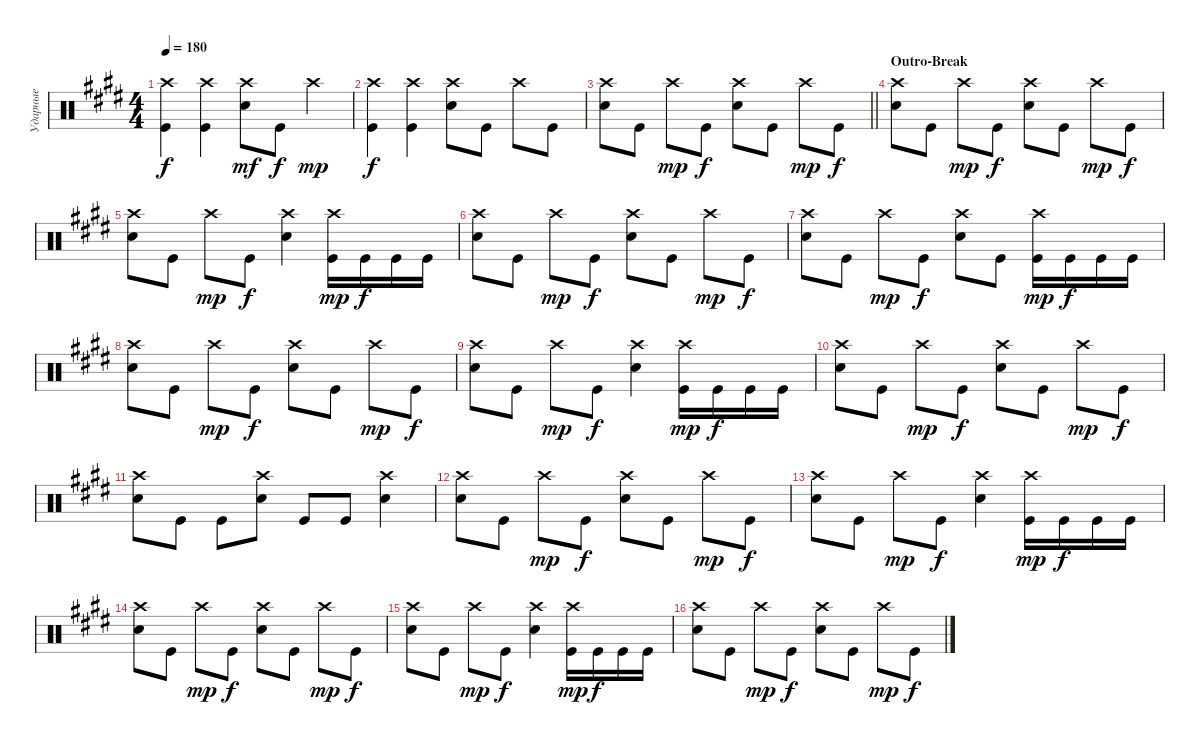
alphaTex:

\track ("Ударные" "Ударные") {instrument percussion}
\staff {score}
\articulation defaults
\ts (4 4)
\tempo 180
\clef neutral
\ks c#minor
("Kick (hit)" "Crash high (hit)").4{dy f} ("Crash high (hit)" "Kick (hit)").4 ("Snare (hit) 2" "Crash high (hit)").8{dy mf} "Kick (hit)".8{dy f} "Crash high (hit)".4{dy mp} |
("Kick (hit)" "Crash high (hit)").4{dy f} ("Kick (hit)" "Crash high (hit)").4 ("Snare (hit) 2" "Crash high (hit)").8 "Kick (hit)".8 "Crash high (hit)".8 "Kick (hit)".8 |
\barLineRight lightlight
("Snare (hit) 2" "Crash high (hit)").8 "Kick (hit)".8 "Crash high (hit)".8{dy mp} "Kick (hit)".8{dy f} ("Snare (hit) 2" "Crash high (hit)").8 "Kick (hit)".8 "Crash high (hit)".8{dy mp} "Kick (hit)".8{dy f} |
\section ("" "Outro-Break")
("Snare (hit) 2" "Crash high (hit)").8 "Kick (hit)".8 "Crash high (hit)".8{dy mp} "Kick (hit)".8{dy f} ("Snare (hit) 2" "Crash high (hit)").8 "Kick (hit)".8 "Crash high (hit)".8{dy mp} "Kick (hit)".8{dy f} |
("Snare (hit) 2" "Crash high (hit)").8 "Kick (hit)".8 "Crash high (hit)".8{dy mp} "Kick (hit)".8{dy f} ("Snare (hit) 2" "Crash high (hit)").4 ("Crash high (hit)" "Kick (hit)").16{dy mp} "Kick (hit)".16{dy f} "Kick (hit)".16 "Kick (hit)".16 |
("Snare (hit) 2" "Crash high (hit)").8 "Kick (hit)".8 "Crash high (hit)".8{dy mp} "Kick (hit)".8{dy f} ("Snare (hit) 2" "Crash high (hit)").8 "Kick (hit)".8 "Crash high (hit)".8{dy mp} "Kick (hit)".8{dy f} |
("Snare (hit) 2" "Crash high (hit)").8 "Kick (hit)".8 "Crash high (hit)".8{dy mp} "Kick (hit)".8{dy f} ("Snare (hit) 2" "Crash high (hit)").8 "Kick (hit)".8 ("Crash high (hit)" "Kick (hit)").16{dy mp} "Kick (hit)".16{dy f} "Kick (hit)".16 "Kick (hit)".16 |
("Snare (hit) 2" "Crash high (hit)").8 "Kick (hit)".8 "Crash high (hit)".8{dy mp} "Kick (hit)".8{dy f} ("Snare (hit) 2" "Crash high (hit)").8 "Kick (hit)".8 "Crash high (hit)".8{dy mp} "Kick (hit)".8{dy f} |
("Snare (hit) 2" "Crash high (hit)").8 "Kick (hit)".8 "Crash high (hit)".8{dy mp} "Kick (hit)".8{dy f} ("Snare (hit) 2" "Crash high (hit)").4 ("Crash high (hit)" "Kick (hit)").16{dy mp} "Kick (hit)".16{dy f} "Kick (hit)".16 "Kick (hit)".16 |
("Snare (hit) 2" "Crash high (hit)").8 "Kick (hit)".8 "Crash high (hit)".8{dy mp} "Kick (hit)".8{dy f} ("Snare (hit) 2" "Crash high (hit)").8 "Kick (hit)".8 "Crash high (hit)".8{dy mp} "Kick (hit)".8{dy f} |
("Snare (hit) 2" "Crash high (hit)").8 "Kick (hit)".8 "Kick (hit)".8 ("Snare (hit) 2" "Crash high (hit)").8 "Kick (hit)".8 "Kick (hit)".8 ("Snare (hit) 2" "Crash high (hit)").4 |
("Snare (hit) 2" "Crash high (hit)").8 "Kick (hit)".8 "Crash high (hit)".8{dy mp} "Kick (hit)".8{dy f} ("Snare (hit) 2" "Crash high (hit)").8 "Kick (hit)".8 "Crash high (hit)".8{dy mp} "Kick (hit)".8{dy f} |
("Snare (hit) 2" "Crash high (hit)").8 "Kick (hit)".8 "Crash high (hit)".8{dy mp} "Kick (hit)".8{dy f} ("Snare (hit) 2" "Crash high (hit)").4 ("Crash high (hit)" "Kick (hit)").16{dy mp} "Kick (hit)".16{dy f} "Kick (hit)".16 "Kick (hit)".16 |
("Snare (hit) 2" "Crash high (hit)").8 "Kick (hit)".8 "Crash high (hit)".8{dy mp} "Kick (hit)".8{dy f} ("Snare (hit) 2" "Crash high (hit)").8 "Kick (hit)".8 "Crash high (hit)".8{dy mp} "Kick (hit)".8{dy f} |
("Snare (hit) 2" "Crash high (hit)").8 "Kick (hit)".8 "Crash high (hit)".8{dy mp} "Kick (hit)".8{dy f} ("Snare (hit) 2" "Crash high (hit)").4 ("Crash high (hit)" "Kick (hit)").16{dy mp} "Kick (hit)".16{dy f} "Kick (hit)".16 "Kick (hit)".16 |
("Snare (hit) 2" "Crash high (hit)").8 "Kick (hit)".8 "Crash high (hit)".8{dy mp} "Kick (hit)".8{dy f} ("Snare (hit) 2" "Crash high (hit)").8 "Kick (hit)".8 "Crash high (hit)".8{dy mp} "Kick (hit)".8{dy f}
